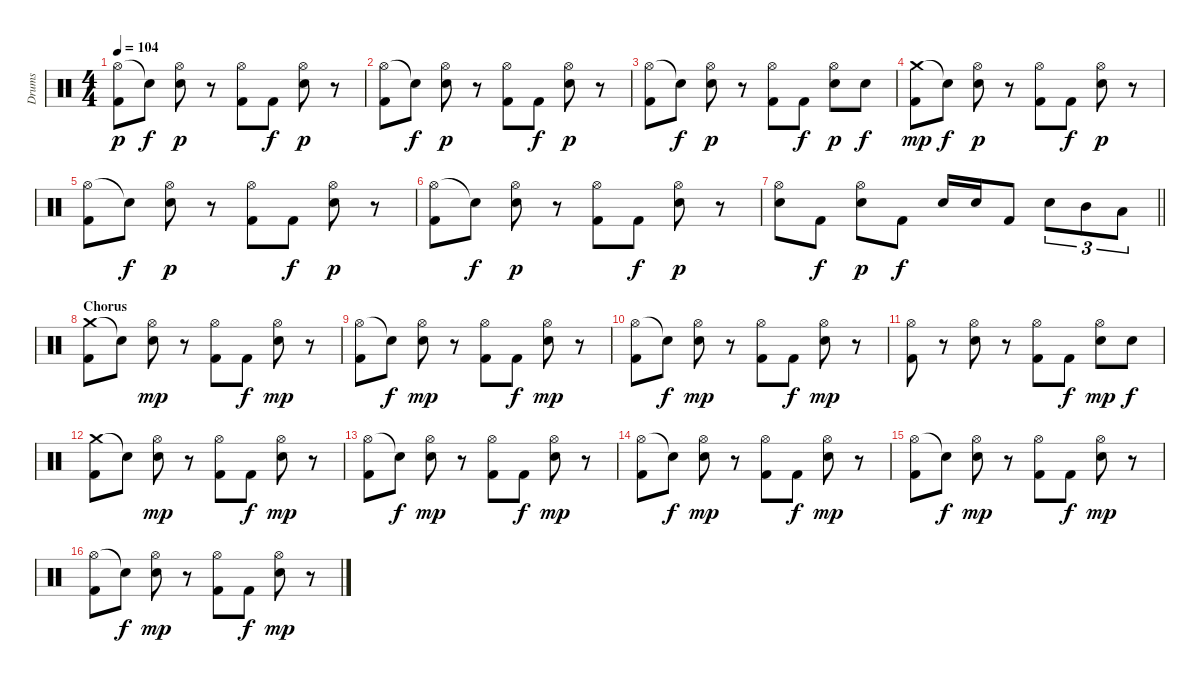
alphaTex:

\track ("Drums" "Drums") {instrument percussion}
\staff {score}
\articulation defaults
\ts (4 4)
\tempo 104
\clef neutral
\ks c
("Hi-Hat (open)" "Kick (hit) 2").8{dy p} "Snare (hit)"{t}.8{dy f} ("Hi-Hat (open)" "Electric Snare (hit)").8{dy p} r.8 ("Hi-Hat (open)" "Kick (hit) 2").8 "Kick (hit) 2".8{dy f} ("Hi-Hat (open)" "Electric Snare (hit)").8{dy p} r.8 |
("Hi-Hat (open)" "Kick (hit) 2").8 "Snare (hit)"{t}.8{dy f} ("Hi-Hat (open)" "Electric Snare (hit)").8{dy p} r.8 ("Hi-Hat (open)" "Kick (hit) 2").8 "Kick (hit) 2".8{dy f} ("Hi-Hat (open)" "Electric Snare (hit)").8{dy p} r.8 |
("Hi-Hat (open)" "Kick (hit) 2").8 "Snare (hit)"{t}.8{dy f} ("Hi-Hat (open)" "Electric Snare (hit)").8{dy p} r.8 ("Hi-Hat (open)" "Kick (hit) 2").8 "Kick (hit) 2".8{dy f} ("Hi-Hat (open)" "Electric Snare (hit)").8{dy p} "Electric Snare (hit)".8{dy f} |
("Crash medium (hit)" "Kick (hit) 2").8{dy mp} "Snare (hit)"{t}.8{dy f} ("Hi-Hat (open)" "Electric Snare (hit)").8{dy p} r.8 ("Hi-Hat (open)" "Kick (hit) 2").8 "Kick (hit) 2".8{dy f} ("Hi-Hat (open)" "Electric Snare (hit)").8{dy p} r.8 |
("Hi-Hat (open)" "Kick (hit) 2").8 "Snare (hit)"{t}.8{dy f} ("Hi-Hat (open)" "Electric Snare (hit)").8{dy p} r.8 ("Hi-Hat (open)" "Kick (hit) 2").8 "Kick (hit) 2".8{dy f} ("Hi-Hat (open)" "Electric Snare (hit)").8{dy p} r.8 |
("Hi-Hat (open)" "Kick (hit) 2").8 "Snare (hit)"{t}.8{dy f} ("Hi-Hat (open)" "Electric Snare (hit)").8{dy p} r.8 ("Hi-Hat (open)" "Kick (hit) 2").8 "Kick (hit) 2".8{dy f} ("Hi-Hat (open)" "Electric Snare (hit)").8{dy p} r.8 |
\barLineRight lightlight
("Hi-Hat (open)" "Electric Snare (hit)").8 "Kick (hit) 2".8{dy f} ("Hi-Hat (open)" "Electric Snare (hit)").8{dy p} "Kick (hit) 2".8{dy f} "Electric Snare (hit)".16 "Electric Snare (hit)".16 "Kick (hit) 2".8 "Electric Snare (hit)".8{tu (3 2)} "Mid Tom (hit)".8{tu (3 2)} "Low Tom (hit)".8{tu (3 2)} |
\section ("" "Chorus")
("Crash medium (hit)" "Kick (hit) 2").8 "Snare (hit)"{t}.8 ("Hi-Hat (open)" "Electric Snare (hit)").8{dy mp} r.8 ("Hi-Hat (open)" "Kick (hit) 2").8 "Kick (hit) 2".8{dy f} ("Hi-Hat (open)" "Electric Snare (hit)").8{dy mp} r.8 |
("Hi-Hat (open)" "Kick (hit) 2").8 "Snare (hit)"{t}.8{dy f} ("Hi-Hat (open)" "Electric Snare (hit)").8{dy mp} r.8 ("Hi-Hat (open)" "Kick (hit) 2").8 "Kick (hit) 2".8{dy f} ("Hi-Hat (open)" "Electric Snare (hit)").8{dy mp} r.8 |
("Hi-Hat (open)" "Kick (hit) 2").8 "Snare (hit)"{t}.8{dy f} ("Hi-Hat (open)" "Electric Snare (hit)").8{dy mp} r.8 ("Hi-Hat (open)" "Kick (hit) 2").8 "Kick (hit) 2".8{dy f} ("Hi-Hat (open)" "Electric Snare (hit)").8{dy mp} r.8 |
("Hi-Hat (open)" "Kick (hit) 2").8 r.8 ("Hi-Hat (open)" "Electric Snare (hit)").8 r.8 ("Hi-Hat (open)" "Kick (hit) 2").8 "Kick (hit) 2".8{dy f} ("Hi-Hat (open)" "Electric Snare (hit)").8{dy mp} "Electric Snare (hit)".8{dy f} |
("Crash medium (hit)" "Kick (hit) 2").8 "Snare (hit)"{t}.8 ("Hi-Hat (open)" "Electric Snare (hit)").8{dy mp} r.8 ("Hi-Hat (open)" "Kick (hit) 2").8 "Kick (hit) 2".8{dy f} ("Hi-Hat (open)" "Electric Snare (hit)").8{dy mp} r.8 |
("Hi-Hat (open)" "Kick (hit) 2").8 "Snare (hit)"{t}.8{dy f} ("Hi-Hat (open)" "Electric Snare (hit)").8{dy mp} r.8 ("Hi-Hat (open)" "Kick (hit) 2").8 "Kick (hit) 2".8{dy f} ("Hi-Hat (open)" "Electric Snare (hit)").8{dy mp} r.8 |
("Hi-Hat (open)" "Kick (hit) 2").8 "Snare (hit)"{t}.8{dy f} ("Hi-Hat (open)" "Electric Snare (hit)").8{dy mp} r.8 ("Hi-Hat (open)" "Kick (hit) 2").8 "Kick (hit) 2".8{dy f} ("Hi-Hat (open)" "Electric Snare (hit)").8{dy mp} r.8 |
("Hi-Hat (open)" "Kick (hit) 2").8 "Snare (hit)"{t}.8{dy f} ("Hi-Hat (open)" "Electric Snare (hit)").8{dy mp} r.8 ("Hi-Hat (open)" "Kick (hit) 2").8 "Kick (hit) 2".8{dy f} ("Hi-Hat (open)" "Electric Snare (hit)").8{dy mp} r.8 |
("Hi-Hat (open)" "Kick (hit) 2").8 "Snare (hit)"{t}.8{dy f} ("Hi-Hat (open)" "Electric Snare (hit)").8{dy mp} r.8 ("Hi-Hat (open)" "Kick (hit) 2").8 "Kick (hit) 2".8{dy f} ("Hi-Hat (open)" "Electric Snare (hit)").8{dy mp} r.8
